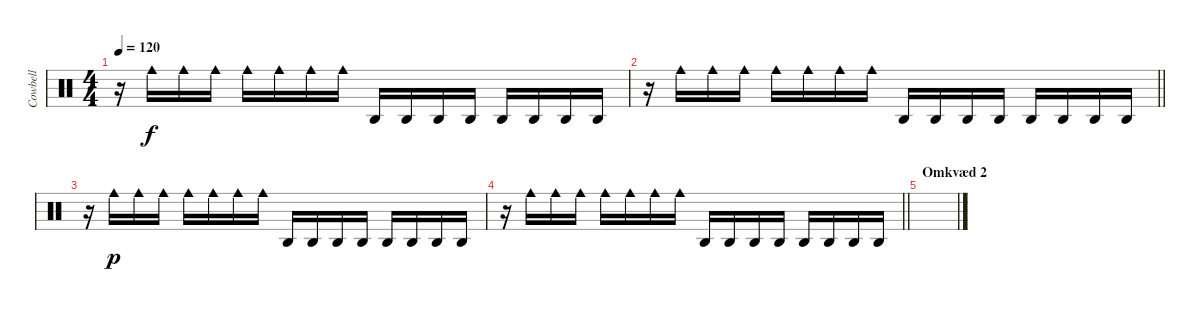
\track ("Cowbell" "Cowbell") {instrument percussion}
\staff {score}
\articulation defaults
\ts (4 4)
\tempo 120
\clef neutral
\ks c
r.16{dy f} "Cowbell medium (hit)".16 "Cowbell medium (hit)".16 "Cowbell medium (hit)".16 "Cowbell medium (hit)".16 "Cowbell medium (hit)".16 "Cowbell medium (hit)".16 "Cowbell medium (hit)".16 "Agogo high (hit)".16 "Agogo high (hit)".16 "Agogo high (hit)".16 "Agogo high (hit)".16 "Agogo high (hit)".16 "Agogo high (hit)".16 "Agogo high (hit)".16 "Agogo high (hit)".16 |
\barLineRight lightlight
r.16 "Cowbell medium (hit)".16 "Cowbell medium (hit)".16 "Cowbell medium (hit)".16 "Cowbell medium (hit)".16 "Cowbell medium (hit)".16 "Cowbell medium (hit)".16 "Cowbell medium (hit)".16 "Agogo high (hit)".16 "Agogo high (hit)".16 "Agogo high (hit)".16 "Agogo high (hit)".16 "Agogo high (hit)".16 "Agogo high (hit)".16 "Agogo high (hit)".16 "Agogo high (hit)".16 |
r.16 "Cowbell medium (hit)".16{dy p} "Cowbell medium (hit)".16 "Cowbell medium (hit)".16 "Cowbell medium (hit)".16 "Cowbell medium (hit)".16 "Cowbell medium (hit)".16 "Cowbell medium (hit)".16 "Agogo high (hit)".16 "Agogo high (hit)".16 "Agogo high (hit)".16 "Agogo high (hit)".16 "Agogo high (hit)".16 "Agogo high (hit)".16 "Agogo high (hit)".16 "Agogo high (hit)".16 |
\barLineRight lightlight
r.16 "Cowbell medium (hit)".16 "Cowbell medium (hit)".16 "Cowbell medium (hit)".16 "Cowbell medium (hit)".16 "Cowbell medium (hit)".16 "Cowbell medium (hit)".16 "Cowbell medium (hit)".16 "Agogo high (hit)".16 "Agogo high (hit)".16 "Agogo high (hit)".16 "Agogo high (hit)".16 "Agogo high (hit)".16 "Agogo high (hit)".16 "Agogo high (hit)".16 "Agogo high (hit)".16 |
\section ("" "Omkvæd 2")
